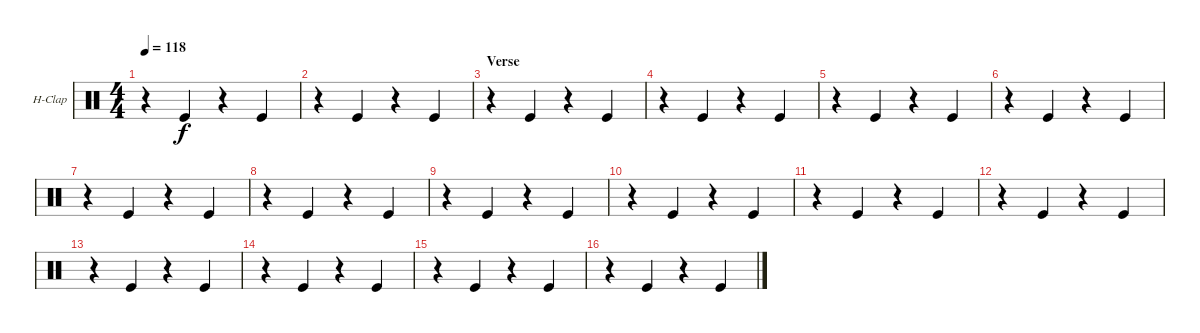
\bracketExtendMode groupsimilarinstruments
\firstSystemTrackNameOrientation horizontal
\otherSystemsTrackNameOrientation horizontal
\track ("Hand Clap" "H-Clap") {instrument percussion}
\staff {score}
\articulation defaults
\ts (4 4)
\tempo 118
\clef neutral
\ks c
r.4{dy f} "Kick (hit)".4 r.4 "Kick (hit)".4 |
r.4 "Kick (hit)".4 r.4 "Kick (hit)".4 |
\section ("" "Verse")
r.4 "Kick (hit)".4 r.4 "Kick (hit)".4 |
r.4 "Kick (hit)".4 r.4 "Kick (hit)".4 |
r.4 "Kick (hit)".4 r.4 "Kick (hit)".4 |
r.4 "Kick (hit)".4 r.4 "Kick (hit)".4 |
r.4 "Kick (hit)".4 r.4 "Kick (hit)".4 |
r.4 "Kick (hit)".4 r.4 "Kick (hit)".4 |
r.4 "Kick (hit)".4 r.4 "Kick (hit)".4 |
r.4 "Kick (hit)".4 r.4 "Kick (hit)".4 |
r.4 "Kick (hit)".4 r.4 "Kick (hit)".4 |
r.4 "Kick (hit)".4 r.4 "Kick (hit)".4 |
r.4 "Kick (hit)".4 r.4 "Kick (hit)".4 |
r.4 "Kick (hit)".4 r.4 "Kick (hit)".4 |
r.4 "Kick (hit)".4 r.4 "Kick (hit)".4 |
r.4 "Kick (hit)".4 r.4 "Kick (hit)".4
